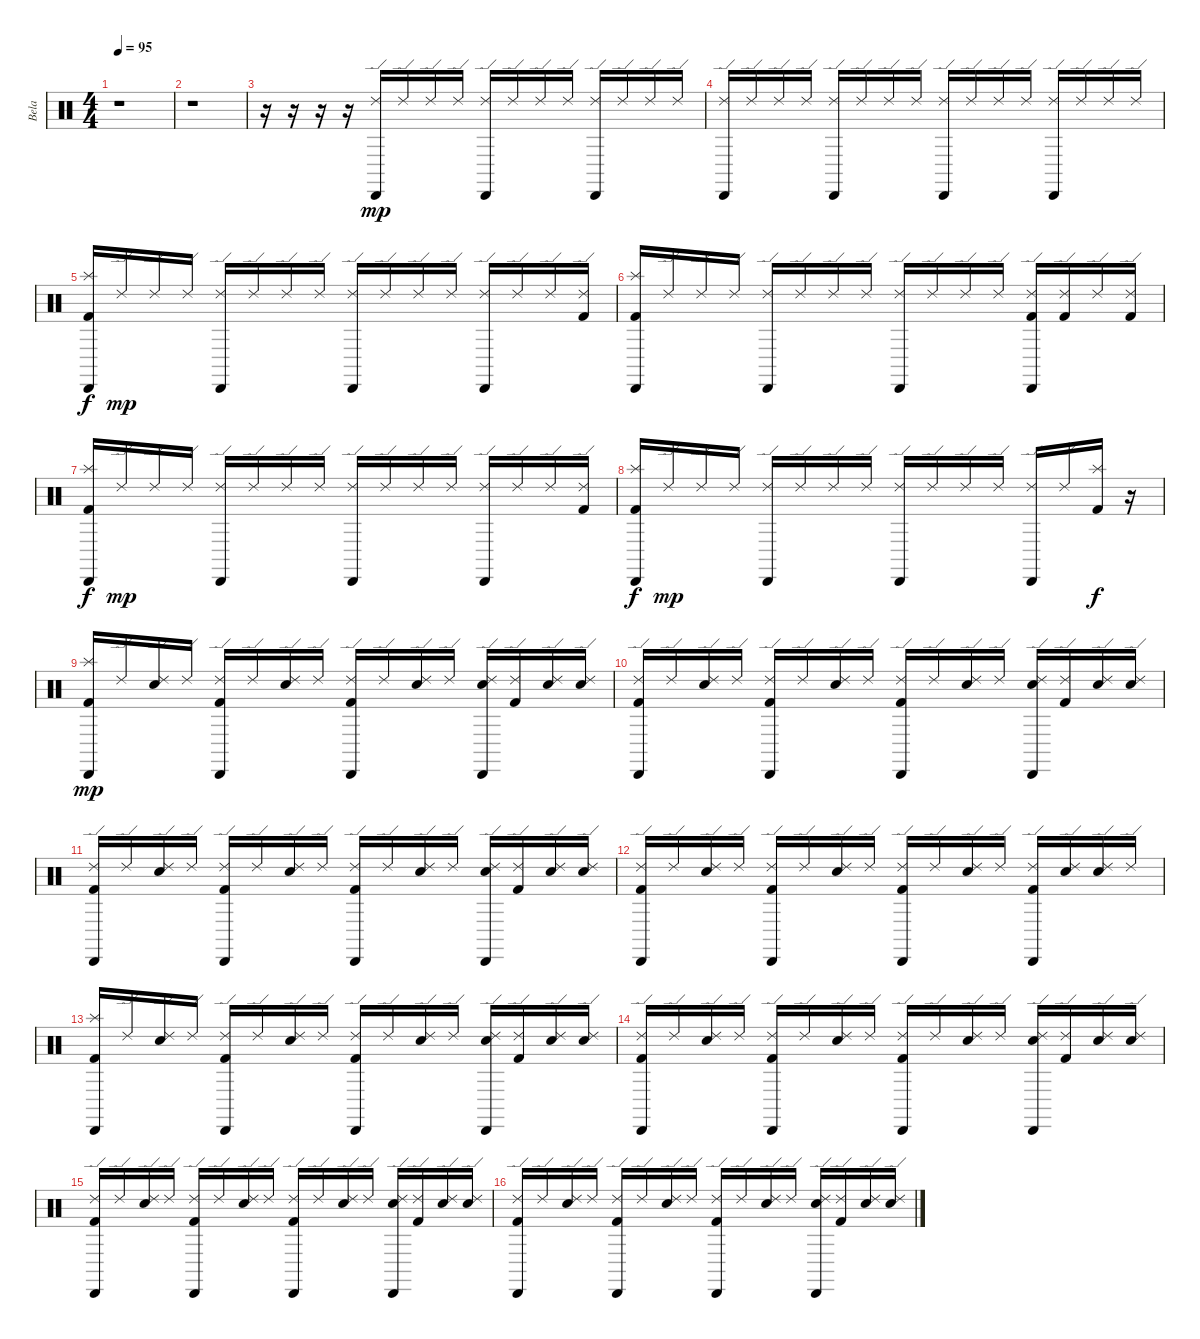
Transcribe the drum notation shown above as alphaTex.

\track ("Bela" "Bela") {instrument percussion}
\staff {score}
\articulation defaults
\ts (4 4)
\tempo 95
\clef neutral
\ks c
r.1{dy mp} |
r.1 |
r.16 r.16 r.16 r.16 ("Ride (edge) 2" "Cabasa (hit)").16 "Ride (edge) 2".16 "Ride (edge) 2".16 "Ride (edge) 2".16 ("Ride (edge) 2" "Cabasa (hit)").16 "Ride (edge) 2".16 "Ride (edge) 2".16 "Ride (edge) 2".16 ("Ride (edge) 2" "Cabasa (hit)").16 "Ride (edge) 2".16 "Ride (edge) 2".16 "Ride (edge) 2".16 |
("Ride (edge) 2" "Cabasa (hit)").16 "Ride (edge) 2".16 "Ride (edge) 2".16 "Ride (edge) 2".16 ("Ride (edge) 2" "Cabasa (hit)").16 "Ride (edge) 2".16 "Ride (edge) 2".16 "Ride (edge) 2".16 ("Ride (edge) 2" "Cabasa (hit)").16 "Ride (edge) 2".16 "Ride (edge) 2".16 "Ride (edge) 2".16 ("Ride (edge) 2" "Cabasa (hit)").16 "Ride (edge) 2".16 "Ride (edge) 2".16 "Ride (edge) 2".16 |
("Splash (hit)" "Cabasa (hit)" "Kick (hit) 2").16{dy f} "Ride (edge) 2".16{dy mp} "Ride (edge) 2".16 "Ride (edge) 2".16 ("Ride (edge) 2" "Cabasa (hit)").16 "Ride (edge) 2".16 "Ride (edge) 2".16 "Ride (edge) 2".16 ("Ride (edge) 2" "Cabasa (hit)").16 "Ride (edge) 2".16 "Ride (edge) 2".16 "Ride (edge) 2".16 ("Ride (edge) 2" "Cabasa (hit)").16 "Ride (edge) 2".16 "Ride (edge) 2".16 ("Ride (edge) 2" "Kick (hit) 2").16 |
("Splash (hit)" "Cabasa (hit)" "Kick (hit) 2").16 "Ride (edge) 2".16 "Ride (edge) 2".16 "Ride (edge) 2".16 ("Ride (edge) 2" "Cabasa (hit)").16 "Ride (edge) 2".16 "Ride (edge) 2".16 "Ride (edge) 2".16 ("Ride (edge) 2" "Cabasa (hit)").16 "Ride (edge) 2".16 "Ride (edge) 2".16 "Ride (edge) 2".16 ("Ride (edge) 2" "Cabasa (hit)" "Kick (hit) 2").16 ("Ride (edge) 2" "Kick (hit) 2").16 "Ride (edge) 2".16 ("Ride (edge) 2" "Kick (hit) 2").16 |
("Splash (hit)" "Cabasa (hit)" "Kick (hit) 2").16{dy f} "Ride (edge) 2".16{dy mp} "Ride (edge) 2".16 "Ride (edge) 2".16 ("Ride (edge) 2" "Cabasa (hit)").16 "Ride (edge) 2".16 "Ride (edge) 2".16 "Ride (edge) 2".16 ("Ride (edge) 2" "Cabasa (hit)").16 "Ride (edge) 2".16 "Ride (edge) 2".16 "Ride (edge) 2".16 ("Ride (edge) 2" "Cabasa (hit)").16 "Ride (edge) 2".16 "Ride (edge) 2".16 ("Ride (edge) 2" "Kick (hit) 2").16 |
("Splash (hit)" "Cabasa (hit)" "Kick (hit) 2").16{dy f} "Ride (edge) 2".16{dy mp} "Ride (edge) 2".16 "Ride (edge) 2".16 ("Ride (edge) 2" "Cabasa (hit)").16 "Ride (edge) 2".16 "Ride (edge) 2".16 "Ride (edge) 2".16 ("Ride (edge) 2" "Cabasa (hit)").16 "Ride (edge) 2".16 "Ride (edge) 2".16 "Ride (edge) 2".16 ("Ride (edge) 2" "Cabasa (hit)").16 "Ride (edge) 2".16 ("Splash (hit)" "Kick (hit) 2").16{dy f} r.16 |
("Splash (hit)" "Cabasa (hit)" "Kick (hit) 2").16{dy mp} "Ride (edge) 2".16 ("Ride (edge) 2" "Snare (hit) 2").16 "Ride (edge) 2".16 ("Ride (edge) 2" "Cabasa (hit)" "Kick (hit) 2").16 "Ride (edge) 2".16 ("Ride (edge) 2" "Snare (hit) 2").16 "Ride (edge) 2".16 ("Ride (edge) 2" "Cabasa (hit)" "Kick (hit) 2").16 "Ride (edge) 2".16 ("Ride (edge) 2" "Snare (hit) 2").16 "Ride (edge) 2".16 ("Ride (edge) 2" "Cabasa (hit)" "Snare (hit) 2").16 ("Ride (edge) 2" "Kick (hit) 2").16 ("Ride (edge) 2" "Snare (hit) 2").16 ("Ride (edge) 2" "Snare (hit) 2").16 |
("Ride (edge) 2" "Cabasa (hit)" "Kick (hit) 2").16 "Ride (edge) 2".16 ("Ride (edge) 2" "Snare (hit) 2").16 "Ride (edge) 2".16 ("Ride (edge) 2" "Cabasa (hit)" "Kick (hit) 2").16 "Ride (edge) 2".16 ("Ride (edge) 2" "Snare (hit) 2").16 "Ride (edge) 2".16 ("Ride (edge) 2" "Cabasa (hit)" "Kick (hit) 2").16 "Ride (edge) 2".16 ("Ride (edge) 2" "Snare (hit) 2").16 "Ride (edge) 2".16 ("Ride (edge) 2" "Cabasa (hit)" "Snare (hit) 2").16 ("Ride (edge) 2" "Kick (hit) 2").16 ("Ride (edge) 2" "Snare (hit) 2").16 ("Ride (edge) 2" "Snare (hit) 2").16 |
("Ride (edge) 2" "Cabasa (hit)" "Kick (hit) 2").16 "Ride (edge) 2".16 ("Ride (edge) 2" "Snare (hit) 2").16 "Ride (edge) 2".16 ("Ride (edge) 2" "Cabasa (hit)" "Kick (hit) 2").16 "Ride (edge) 2".16 ("Ride (edge) 2" "Snare (hit) 2").16 "Ride (edge) 2".16 ("Ride (edge) 2" "Cabasa (hit)" "Kick (hit) 2").16 "Ride (edge) 2".16 ("Ride (edge) 2" "Snare (hit) 2").16 "Ride (edge) 2".16 ("Ride (edge) 2" "Cabasa (hit)" "Snare (hit) 2").16 ("Ride (edge) 2" "Kick (hit) 2").16 ("Ride (edge) 2" "Snare (hit) 2").16 ("Ride (edge) 2" "Snare (hit) 2").16 |
("Ride (edge) 2" "Cabasa (hit)" "Kick (hit) 2").16 "Ride (edge) 2".16 ("Ride (edge) 2" "Snare (hit) 2").16 "Ride (edge) 2".16 ("Ride (edge) 2" "Cabasa (hit)" "Kick (hit) 2").16 "Ride (edge) 2".16 ("Ride (edge) 2" "Snare (hit) 2").16 "Ride (edge) 2".16 ("Ride (edge) 2" "Cabasa (hit)" "Kick (hit) 2").16 "Ride (edge) 2".16 ("Ride (edge) 2" "Snare (hit) 2").16 "Ride (edge) 2".16 ("Ride (edge) 2" "Cabasa (hit)" "Kick (hit) 2").16 ("Ride (edge) 2" "Snare (hit) 2").16 ("Ride (edge) 2" "Snare (hit) 2").16 "Ride (edge) 2".16 |
("Splash (hit)" "Cabasa (hit)" "Kick (hit) 2").16 "Ride (edge) 2".16 ("Ride (edge) 2" "Snare (hit) 2").16 "Ride (edge) 2".16 ("Ride (edge) 2" "Cabasa (hit)" "Kick (hit) 2").16 "Ride (edge) 2".16 ("Ride (edge) 2" "Snare (hit) 2").16 "Ride (edge) 2".16 ("Ride (edge) 2" "Cabasa (hit)" "Kick (hit) 2").16 "Ride (edge) 2".16 ("Ride (edge) 2" "Snare (hit) 2").16 "Ride (edge) 2".16 ("Ride (edge) 2" "Cabasa (hit)" "Snare (hit) 2").16 ("Ride (edge) 2" "Kick (hit) 2").16 ("Ride (edge) 2" "Snare (hit) 2").16 ("Ride (edge) 2" "Snare (hit) 2").16 |
("Ride (edge) 2" "Cabasa (hit)" "Kick (hit) 2").16 "Ride (edge) 2".16 ("Ride (edge) 2" "Snare (hit) 2").16 "Ride (edge) 2".16 ("Ride (edge) 2" "Cabasa (hit)" "Kick (hit) 2").16 "Ride (edge) 2".16 ("Ride (edge) 2" "Snare (hit) 2").16 "Ride (edge) 2".16 ("Ride (edge) 2" "Cabasa (hit)" "Kick (hit) 2").16 "Ride (edge) 2".16 ("Ride (edge) 2" "Snare (hit) 2").16 "Ride (edge) 2".16 ("Ride (edge) 2" "Cabasa (hit)" "Snare (hit) 2").16 ("Ride (edge) 2" "Kick (hit) 2").16 ("Ride (edge) 2" "Snare (hit) 2").16 ("Ride (edge) 2" "Snare (hit) 2").16 |
("Ride (edge) 2" "Cabasa (hit)" "Kick (hit) 2").16 "Ride (edge) 2".16 ("Ride (edge) 2" "Snare (hit) 2").16 "Ride (edge) 2".16 ("Ride (edge) 2" "Cabasa (hit)" "Kick (hit) 2").16 "Ride (edge) 2".16 ("Ride (edge) 2" "Snare (hit) 2").16 "Ride (edge) 2".16 ("Ride (edge) 2" "Cabasa (hit)" "Kick (hit) 2").16 "Ride (edge) 2".16 ("Ride (edge) 2" "Snare (hit) 2").16 "Ride (edge) 2".16 ("Ride (edge) 2" "Cabasa (hit)" "Snare (hit) 2").16 ("Ride (edge) 2" "Kick (hit) 2").16 ("Ride (edge) 2" "Snare (hit) 2").16 ("Ride (edge) 2" "Snare (hit) 2").16 |
("Ride (edge) 2" "Cabasa (hit)" "Kick (hit) 2").16 "Ride (edge) 2".16 ("Ride (edge) 2" "Snare (hit) 2").16 "Ride (edge) 2".16 ("Ride (edge) 2" "Cabasa (hit)" "Kick (hit) 2").16 "Ride (edge) 2".16 ("Ride (edge) 2" "Snare (hit) 2").16 "Ride (edge) 2".16 ("Ride (edge) 2" "Cabasa (hit)" "Kick (hit) 2").16 "Ride (edge) 2".16 ("Ride (edge) 2" "Snare (hit) 2").16 "Ride (edge) 2".16 ("Ride (edge) 2" "Cabasa (hit)" "Snare (hit) 2").16 ("Ride (edge) 2" "Kick (hit) 2").16 ("Ride (edge) 2" "Snare (hit) 2").16 ("Ride (edge) 2" "Snare (hit) 2").16
